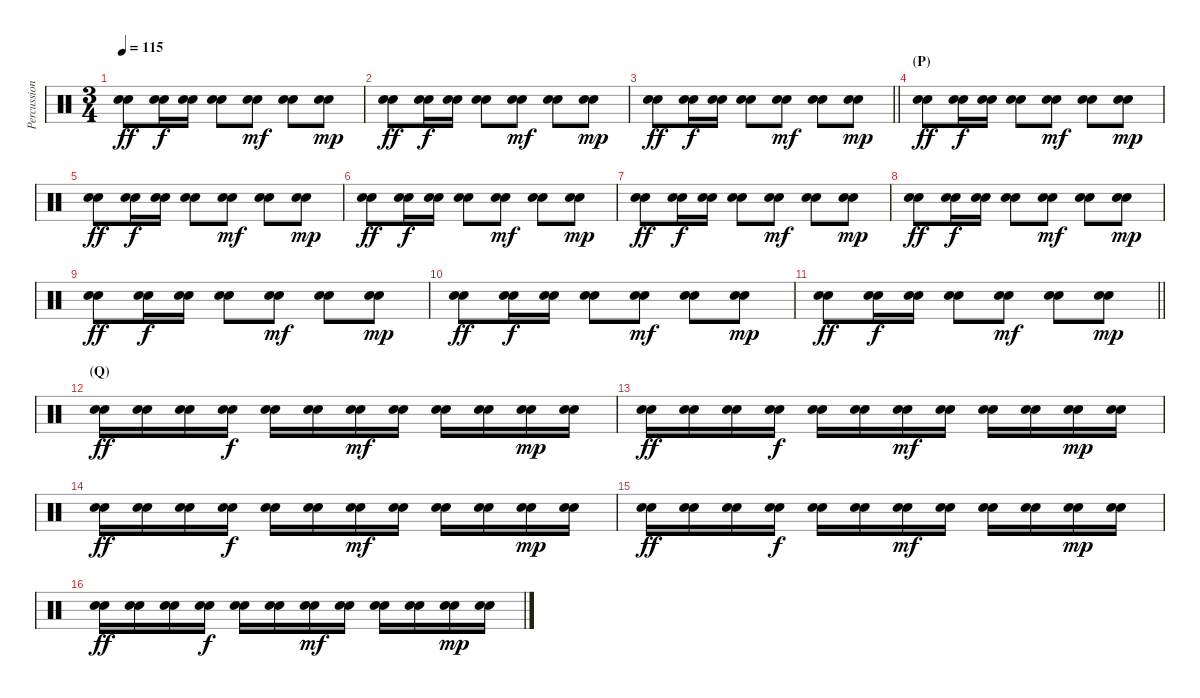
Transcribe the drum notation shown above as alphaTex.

\track ("Percussion 2" "Percussion") {instrument percussion}
\staff {score}
\articulation defaults
\ts (3 4)
\tempo 115
\clef neutral
\ks c
("Electric Snare (hit)" "Electric Snare (hit)").8{dy ff} ("Electric Snare (hit)" "Electric Snare (hit)").16{dy f} ("Electric Snare (hit)" "Electric Snare (hit)").16 ("Electric Snare (hit)" "Electric Snare (hit)").8 ("Electric Snare (hit)" "Electric Snare (hit)").8{dy mf} ("Electric Snare (hit)" "Electric Snare (hit)").8 ("Electric Snare (hit)" "Electric Snare (hit)").8{dy mp} |
("Electric Snare (hit)" "Electric Snare (hit)").8{dy ff} ("Electric Snare (hit)" "Electric Snare (hit)").16{dy f} ("Electric Snare (hit)" "Electric Snare (hit)").16 ("Electric Snare (hit)" "Electric Snare (hit)").8 ("Electric Snare (hit)" "Electric Snare (hit)").8{dy mf} ("Electric Snare (hit)" "Electric Snare (hit)").8 ("Electric Snare (hit)" "Electric Snare (hit)").8{dy mp} |
\barLineRight lightlight
("Electric Snare (hit)" "Electric Snare (hit)").8{dy ff} ("Electric Snare (hit)" "Electric Snare (hit)").16{dy f} ("Electric Snare (hit)" "Electric Snare (hit)").16 ("Electric Snare (hit)" "Electric Snare (hit)").8 ("Electric Snare (hit)" "Electric Snare (hit)").8{dy mf} ("Electric Snare (hit)" "Electric Snare (hit)").8 ("Electric Snare (hit)" "Electric Snare (hit)").8{dy mp} |
\section ("" "(P)")
("Electric Snare (hit)" "Electric Snare (hit)").8{dy ff} ("Electric Snare (hit)" "Electric Snare (hit)").16{dy f} ("Electric Snare (hit)" "Electric Snare (hit)").16 ("Electric Snare (hit)" "Electric Snare (hit)").8 ("Electric Snare (hit)" "Electric Snare (hit)").8{dy mf} ("Electric Snare (hit)" "Electric Snare (hit)").8 ("Electric Snare (hit)" "Electric Snare (hit)").8{dy mp} |
("Electric Snare (hit)" "Electric Snare (hit)").8{dy ff} ("Electric Snare (hit)" "Electric Snare (hit)").16{dy f} ("Electric Snare (hit)" "Electric Snare (hit)").16 ("Electric Snare (hit)" "Electric Snare (hit)").8 ("Electric Snare (hit)" "Electric Snare (hit)").8{dy mf} ("Electric Snare (hit)" "Electric Snare (hit)").8 ("Electric Snare (hit)" "Electric Snare (hit)").8{dy mp} |
("Electric Snare (hit)" "Electric Snare (hit)").8{dy ff} ("Electric Snare (hit)" "Electric Snare (hit)").16{dy f} ("Electric Snare (hit)" "Electric Snare (hit)").16 ("Electric Snare (hit)" "Electric Snare (hit)").8 ("Electric Snare (hit)" "Electric Snare (hit)").8{dy mf} ("Electric Snare (hit)" "Electric Snare (hit)").8 ("Electric Snare (hit)" "Electric Snare (hit)").8{dy mp} |
("Electric Snare (hit)" "Electric Snare (hit)").8{dy ff} ("Electric Snare (hit)" "Electric Snare (hit)").16{dy f} ("Electric Snare (hit)" "Electric Snare (hit)").16 ("Electric Snare (hit)" "Electric Snare (hit)").8 ("Electric Snare (hit)" "Electric Snare (hit)").8{dy mf} ("Electric Snare (hit)" "Electric Snare (hit)").8 ("Electric Snare (hit)" "Electric Snare (hit)").8{dy mp} |
("Electric Snare (hit)" "Electric Snare (hit)").8{dy ff} ("Electric Snare (hit)" "Electric Snare (hit)").16{dy f} ("Electric Snare (hit)" "Electric Snare (hit)").16 ("Electric Snare (hit)" "Electric Snare (hit)").8 ("Electric Snare (hit)" "Electric Snare (hit)").8{dy mf} ("Electric Snare (hit)" "Electric Snare (hit)").8 ("Electric Snare (hit)" "Electric Snare (hit)").8{dy mp} |
("Electric Snare (hit)" "Electric Snare (hit)").8{dy ff} ("Electric Snare (hit)" "Electric Snare (hit)").16{dy f} ("Electric Snare (hit)" "Electric Snare (hit)").16 ("Electric Snare (hit)" "Electric Snare (hit)").8 ("Electric Snare (hit)" "Electric Snare (hit)").8{dy mf} ("Electric Snare (hit)" "Electric Snare (hit)").8 ("Electric Snare (hit)" "Electric Snare (hit)").8{dy mp} |
("Electric Snare (hit)" "Electric Snare (hit)").8{dy ff} ("Electric Snare (hit)" "Electric Snare (hit)").16{dy f} ("Electric Snare (hit)" "Electric Snare (hit)").16 ("Electric Snare (hit)" "Electric Snare (hit)").8 ("Electric Snare (hit)" "Electric Snare (hit)").8{dy mf} ("Electric Snare (hit)" "Electric Snare (hit)").8 ("Electric Snare (hit)" "Electric Snare (hit)").8{dy mp} |
\barLineRight lightlight
("Electric Snare (hit)" "Electric Snare (hit)").8{dy ff} ("Electric Snare (hit)" "Electric Snare (hit)").16{dy f} ("Electric Snare (hit)" "Electric Snare (hit)").16 ("Electric Snare (hit)" "Electric Snare (hit)").8 ("Electric Snare (hit)" "Electric Snare (hit)").8{dy mf} ("Electric Snare (hit)" "Electric Snare (hit)").8 ("Electric Snare (hit)" "Electric Snare (hit)").8{dy mp} |
\section ("" "(Q)")
("Electric Snare (hit)" "Electric Snare (hit)").16{dy ff} ("Electric Snare (hit)" "Electric Snare (hit)").16 ("Electric Snare (hit)" "Electric Snare (hit)").16 ("Electric Snare (hit)" "Electric Snare (hit)").16{dy f} ("Electric Snare (hit)" "Electric Snare (hit)").16 ("Electric Snare (hit)" "Electric Snare (hit)").16 ("Electric Snare (hit)" "Electric Snare (hit)").16{dy mf} ("Electric Snare (hit)" "Electric Snare (hit)").16 ("Electric Snare (hit)" "Electric Snare (hit)").16 ("Electric Snare (hit)" "Electric Snare (hit)").16 ("Electric Snare (hit)" "Electric Snare (hit)").16{dy mp} ("Electric Snare (hit)" "Electric Snare (hit)").16 |
("Electric Snare (hit)" "Electric Snare (hit)").16{dy ff} ("Electric Snare (hit)" "Electric Snare (hit)").16 ("Electric Snare (hit)" "Electric Snare (hit)").16 ("Electric Snare (hit)" "Electric Snare (hit)").16{dy f} ("Electric Snare (hit)" "Electric Snare (hit)").16 ("Electric Snare (hit)" "Electric Snare (hit)").16 ("Electric Snare (hit)" "Electric Snare (hit)").16{dy mf} ("Electric Snare (hit)" "Electric Snare (hit)").16 ("Electric Snare (hit)" "Electric Snare (hit)").16 ("Electric Snare (hit)" "Electric Snare (hit)").16 ("Electric Snare (hit)" "Electric Snare (hit)").16{dy mp} ("Electric Snare (hit)" "Electric Snare (hit)").16 |
("Electric Snare (hit)" "Electric Snare (hit)").16{dy ff} ("Electric Snare (hit)" "Electric Snare (hit)").16 ("Electric Snare (hit)" "Electric Snare (hit)").16 ("Electric Snare (hit)" "Electric Snare (hit)").16{dy f} ("Electric Snare (hit)" "Electric Snare (hit)").16 ("Electric Snare (hit)" "Electric Snare (hit)").16 ("Electric Snare (hit)" "Electric Snare (hit)").16{dy mf} ("Electric Snare (hit)" "Electric Snare (hit)").16 ("Electric Snare (hit)" "Electric Snare (hit)").16 ("Electric Snare (hit)" "Electric Snare (hit)").16 ("Electric Snare (hit)" "Electric Snare (hit)").16{dy mp} ("Electric Snare (hit)" "Electric Snare (hit)").16 |
("Electric Snare (hit)" "Electric Snare (hit)").16{dy ff} ("Electric Snare (hit)" "Electric Snare (hit)").16 ("Electric Snare (hit)" "Electric Snare (hit)").16 ("Electric Snare (hit)" "Electric Snare (hit)").16{dy f} ("Electric Snare (hit)" "Electric Snare (hit)").16 ("Electric Snare (hit)" "Electric Snare (hit)").16 ("Electric Snare (hit)" "Electric Snare (hit)").16{dy mf} ("Electric Snare (hit)" "Electric Snare (hit)").16 ("Electric Snare (hit)" "Electric Snare (hit)").16 ("Electric Snare (hit)" "Electric Snare (hit)").16 ("Electric Snare (hit)" "Electric Snare (hit)").16{dy mp} ("Electric Snare (hit)" "Electric Snare (hit)").16 |
("Electric Snare (hit)" "Electric Snare (hit)").16{dy ff} ("Electric Snare (hit)" "Electric Snare (hit)").16 ("Electric Snare (hit)" "Electric Snare (hit)").16 ("Electric Snare (hit)" "Electric Snare (hit)").16{dy f} ("Electric Snare (hit)" "Electric Snare (hit)").16 ("Electric Snare (hit)" "Electric Snare (hit)").16 ("Electric Snare (hit)" "Electric Snare (hit)").16{dy mf} ("Electric Snare (hit)" "Electric Snare (hit)").16 ("Electric Snare (hit)" "Electric Snare (hit)").16 ("Electric Snare (hit)" "Electric Snare (hit)").16 ("Electric Snare (hit)" "Electric Snare (hit)").16{dy mp} ("Electric Snare (hit)" "Electric Snare (hit)").16
